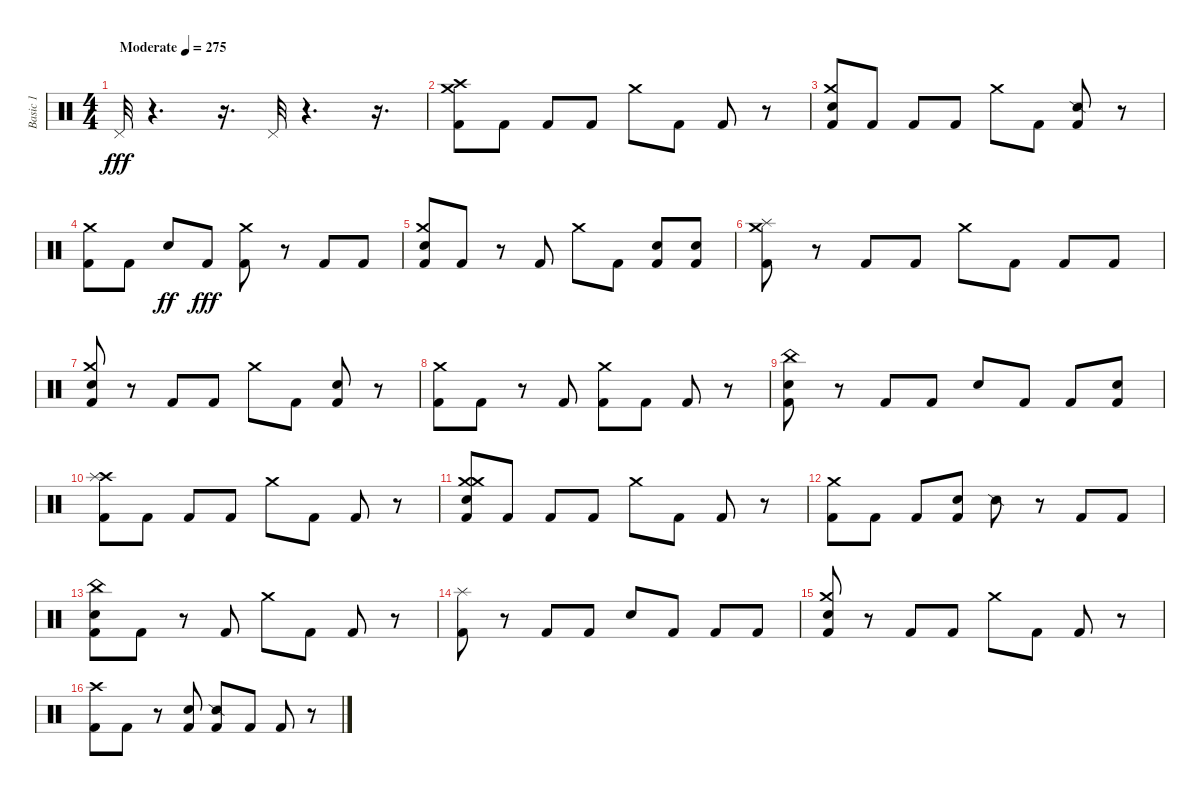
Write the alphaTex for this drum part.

\track ("Basic 1" "Basic 1") {instrument percussion}
\staff {score}
\articulation defaults
\ts (4 4)
\tempo (275 "Moderate")
\clef neutral
\ks c "Pedal Hi-Hat (hit)".32{dy fff}
r.4{d} r.16{d} "Pedal Hi-Hat (hit)".32 r.4{d} r.16{d} |
("Crash high (hit)" "Kick (hit) 2" "Crash medium (hit)").8 "Kick (hit) 2".8 "Kick (hit) 2".8 "Kick (hit) 2".8 "Crash medium (hit)".8 "Kick (hit) 2".8 "Kick (hit) 2".8 r.8 |
("Snare (hit) 2" "Kick (hit) 2" "Crash medium (hit)").8 "Kick (hit) 2".8 "Kick (hit) 2".8 "Kick (hit) 2".8 "Crash medium (hit)".8 "Kick (hit) 2".8 ("Snare (side stick) 2" "Kick (hit) 2").8 r.8 |
("Kick (hit) 2" "Crash medium (hit)").8 "Kick (hit) 2".8 "Snare (hit) 2".8{dy ff} "Kick (hit) 2".8{dy fff} ("Kick (hit) 2" "Crash medium (hit)").8 r.8 "Kick (hit) 2".8 "Kick (hit) 2".8 |
("Snare (hit) 2" "Kick (hit) 2" "Crash medium (hit)").8 "Kick (hit) 2".8 r.8 "Kick (hit) 2".8 "Crash medium (hit)".8 "Kick (hit) 2".8 ("Snare (hit) 2" "Kick (hit) 2").8 ("Snare (hit) 2" "Kick (hit) 2").8 |
("Splash (hit)" "Kick (hit) 2" "Crash medium (hit)").8 r.8 "Kick (hit) 2".8 "Kick (hit) 2".8 "Crash medium (hit)".8 "Kick (hit) 2".8 "Kick (hit) 2".8 "Kick (hit) 2".8 |
("Snare (hit) 2" "Kick (hit) 2" "Crash medium (hit)").8 r.8 "Kick (hit) 2".8 "Kick (hit) 2".8 "Crash medium (hit)".8 "Kick (hit) 2".8 ("Snare (hit) 2" "Kick (hit) 2").8 r.8 |
("Kick (hit) 2" "Crash medium (hit)").8 "Kick (hit) 2".8 r.8 "Kick (hit) 2".8 ("Kick (hit) 2" "Crash medium (hit)").8 "Kick (hit) 2".8 "Kick (hit) 2".8 r.8 |
("China (hit)" "Snare (hit) 2" "Kick (hit) 2").8 r.8 "Kick (hit) 2".8 "Kick (hit) 2".8 "Snare (hit)".8 "Kick (hit) 2".8 "Kick (hit) 2".8 ("Snare (hit) 2" "Kick (hit) 2").8 |
("Crash high (hit)" "Splash (hit)" "Kick (hit) 2").8 "Kick (hit) 2".8 "Kick (hit) 2".8 "Kick (hit) 2".8 "Crash medium (hit)".8 "Kick (hit) 2".8 "Kick (hit) 2".8 r.8 |
("Snare (hit) 2" "Kick (hit) 2" "Crash medium (hit)" "Crash medium (hit)").8 "Kick (hit) 2".8 "Kick (hit) 2".8 "Kick (hit) 2".8 "Crash medium (hit)".8 "Kick (hit) 2".8 "Kick (hit) 2".8 r.8 |
("Kick (hit) 2" "Crash medium (hit)").8 "Kick (hit) 2".8 "Kick (hit) 2".8 ("Kick (hit) 2" "Snare (hit) 2").8 "Snare (side stick) 2".8 r.8 "Kick (hit) 2".8 "Kick (hit) 2".8 |
("China (hit)" "Snare (hit) 2" "Kick (hit) 2").8 "Kick (hit) 2".8 r.8 "Kick (hit) 2".8 "Crash medium (hit)".8 "Kick (hit) 2".8 "Kick (hit) 2".8 r.8 |
("Splash (hit)" "Kick (hit) 2").8 r.8 "Kick (hit) 2".8 "Kick (hit) 2".8 "Snare (hit)".8 "Kick (hit) 2".8 "Kick (hit) 2".8 "Kick (hit) 2".8 |
("Snare (hit) 2" "Kick (hit) 2" "Crash medium (hit)").8 r.8 "Kick (hit) 2".8 "Kick (hit) 2".8 "Crash medium (hit)".8 "Kick (hit) 2".8 "Kick (hit) 2".8 r.8 |
("Crash high (hit)" "Kick (hit) 2").8 "Kick (hit) 2".8 r.8 ("Snare (hit) 2" "Kick (hit) 2").8 ("Snare (side stick) 2" "Kick (hit) 2").8 "Kick (hit) 2".8 "Kick (hit) 2".8 r.8
